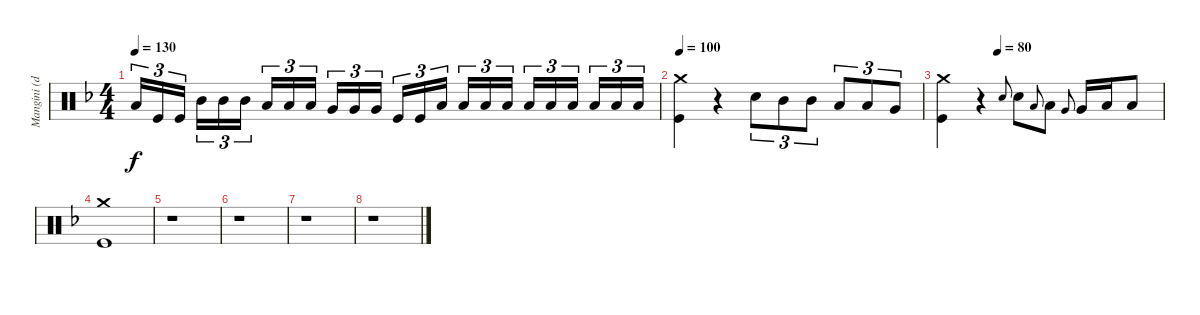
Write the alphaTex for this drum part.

\track ("Mangini (drums)" "Mangini (d") {instrument percussion}
\staff {score}
\articulation defaults
\ts (4 4)
\tempo 130
\clef neutral
\ks dminor "Low Tom (hit)".16{tu (3 2) dy f} "Kick (hit)".16{tu (3 2)} "Kick (hit)".16{tu (3 2) beam splitsecondary} "Mid Tom (hit)".16{tu (3 2)} "Mid Tom (hit)".16{tu (3 2)} "Mid Tom (hit)".16{tu (3 2)} "Low Tom (hit)".16{tu (3 2)} "Low Tom (hit)".16{tu (3 2)} "Low Tom (hit)".16{tu (3 2) beam splitsecondary} "Very Low Tom (hit)".16{tu (3 2)} "Very Low Tom (hit)".16{tu (3 2)} "Very Low Tom (hit)".16{tu (3 2)} "Kick (hit)".16{tu (3 2)} "Kick (hit)".16{tu (3 2)} "Low Floor Tom (hit)".16{tu (3 2) beam splitsecondary} "Low Floor Tom (hit)".16{tu (3 2)} "Low Floor Tom (hit)".16{tu (3 2)} "Low Floor Tom (hit)".16{tu (3 2)} "Low Floor Tom (hit)".16{tu (3 2)} "Low Floor Tom (hit)".16{tu (3 2)} "Low Floor Tom (hit)".16{tu (3 2) beam splitsecondary} "Low Floor Tom (hit)".16{tu (3 2)} "Low Floor Tom (hit)".16{tu (3 2)} "Low Floor Tom (hit)".16{tu (3 2)}
|
\tempo 100
("Crash medium (hit)" "Kick (hit)").4 r.4 "Snare (hit) 2".8{tu (3 2)} "Mid Tom (hit)".8{tu (3 2)} "Mid Tom (hit)".8{tu (3 2)} "Low Tom (hit)".8{tu (3 2)} "Low Tom (hit)".8{tu (3 2)} "Very Low Tom (hit)".8{tu (3 2)} |
\tempo (80 0.25)
("Crash medium (hit)" "Kick (hit)").4 r.4 "Snare (hit) 2".8{gr onbeat} "Snare (hit) 2".8 "Low Tom (hit)".8{gr onbeat} "Low Tom (hit)".8 "Very Low Tom (hit)".8{gr onbeat} "Very Low Tom (hit)".16 "Low Floor Tom (hit)".16 "Low Floor Tom (hit)".8 |
("Crash medium (hit)" "Kick (hit)").1 |
r.1 |
r.1 |
r.1 |
r.1
